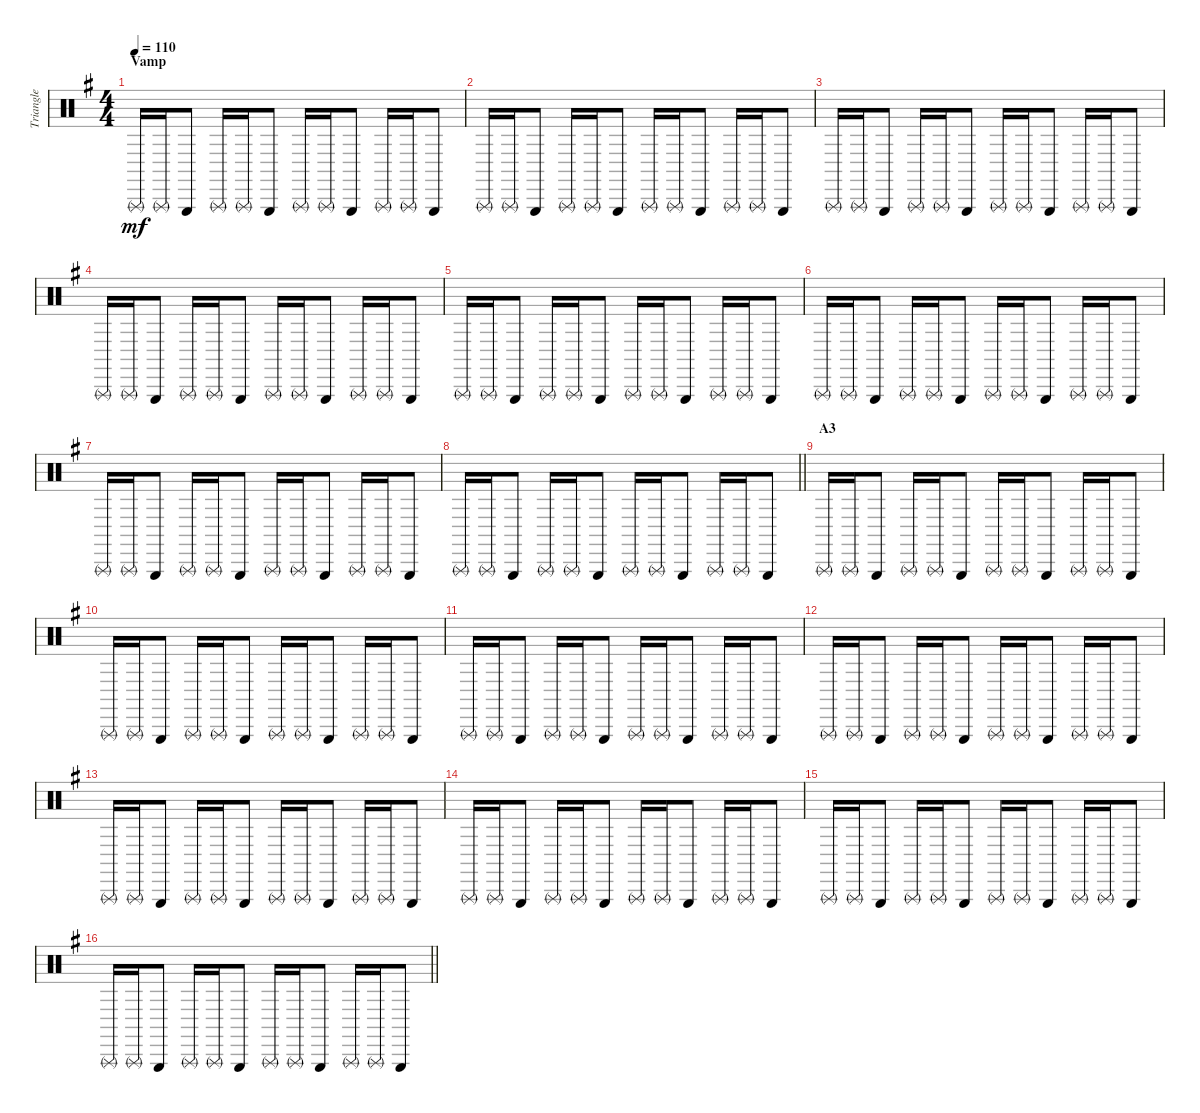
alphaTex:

\track ("Triangle" "Triangle") {instrument percussion}
\staff {score}
\articulation defaults
\ts (4 4)
\section ("" "Vamp")
\tempo 110
\clef neutral
\ks g "Triangle (rnute)".16{dy mf} "Triangle (rnute)".16 "Triangle (hit)".8 "Triangle (rnute)".16 "Triangle (rnute)".16 "Triangle (hit)".8 "Triangle (rnute)".16 "Triangle (rnute)".16 "Triangle (hit)".8 "Triangle (rnute)".16 "Triangle (rnute)".16 "Triangle (hit)".8
|
"Triangle (rnute)".16 "Triangle (rnute)".16 "Triangle (hit)".8 "Triangle (rnute)".16 "Triangle (rnute)".16 "Triangle (hit)".8 "Triangle (rnute)".16 "Triangle (rnute)".16 "Triangle (hit)".8 "Triangle (rnute)".16 "Triangle (rnute)".16 "Triangle (hit)".8 |
"Triangle (rnute)".16 "Triangle (rnute)".16 "Triangle (hit)".8 "Triangle (rnute)".16 "Triangle (rnute)".16 "Triangle (hit)".8 "Triangle (rnute)".16 "Triangle (rnute)".16 "Triangle (hit)".8 "Triangle (rnute)".16 "Triangle (rnute)".16 "Triangle (hit)".8 |
"Triangle (rnute)".16 "Triangle (rnute)".16 "Triangle (hit)".8 "Triangle (rnute)".16 "Triangle (rnute)".16 "Triangle (hit)".8 "Triangle (rnute)".16 "Triangle (rnute)".16 "Triangle (hit)".8 "Triangle (rnute)".16 "Triangle (rnute)".16 "Triangle (hit)".8 |
"Triangle (rnute)".16 "Triangle (rnute)".16 "Triangle (hit)".8 "Triangle (rnute)".16 "Triangle (rnute)".16 "Triangle (hit)".8 "Triangle (rnute)".16 "Triangle (rnute)".16 "Triangle (hit)".8 "Triangle (rnute)".16 "Triangle (rnute)".16 "Triangle (hit)".8 |
"Triangle (rnute)".16 "Triangle (rnute)".16 "Triangle (hit)".8 "Triangle (rnute)".16 "Triangle (rnute)".16 "Triangle (hit)".8 "Triangle (rnute)".16 "Triangle (rnute)".16 "Triangle (hit)".8 "Triangle (rnute)".16 "Triangle (rnute)".16 "Triangle (hit)".8 |
"Triangle (rnute)".16 "Triangle (rnute)".16 "Triangle (hit)".8 "Triangle (rnute)".16 "Triangle (rnute)".16 "Triangle (hit)".8 "Triangle (rnute)".16 "Triangle (rnute)".16 "Triangle (hit)".8 "Triangle (rnute)".16 "Triangle (rnute)".16 "Triangle (hit)".8 |
\barLineRight lightlight "Triangle (rnute)".16 "Triangle (rnute)".16 "Triangle (hit)".8 "Triangle (rnute)".16 "Triangle (rnute)".16 "Triangle (hit)".8 "Triangle (rnute)".16 "Triangle (rnute)".16 "Triangle (hit)".8 "Triangle (rnute)".16 "Triangle (rnute)".16 "Triangle (hit)".8
|
\section ("" "A3")
"Triangle (rnute)".16 "Triangle (rnute)".16 "Triangle (hit)".8 "Triangle (rnute)".16 "Triangle (rnute)".16 "Triangle (hit)".8 "Triangle (rnute)".16 "Triangle (rnute)".16 "Triangle (hit)".8 "Triangle (rnute)".16 "Triangle (rnute)".16 "Triangle (hit)".8 |
"Triangle (rnute)".16 "Triangle (rnute)".16 "Triangle (hit)".8 "Triangle (rnute)".16 "Triangle (rnute)".16 "Triangle (hit)".8 "Triangle (rnute)".16 "Triangle (rnute)".16 "Triangle (hit)".8 "Triangle (rnute)".16 "Triangle (rnute)".16 "Triangle (hit)".8 |
"Triangle (rnute)".16 "Triangle (rnute)".16 "Triangle (hit)".8 "Triangle (rnute)".16 "Triangle (rnute)".16 "Triangle (hit)".8 "Triangle (rnute)".16 "Triangle (rnute)".16 "Triangle (hit)".8 "Triangle (rnute)".16 "Triangle (rnute)".16 "Triangle (hit)".8 |
"Triangle (rnute)".16 "Triangle (rnute)".16 "Triangle (hit)".8 "Triangle (rnute)".16 "Triangle (rnute)".16 "Triangle (hit)".8 "Triangle (rnute)".16 "Triangle (rnute)".16 "Triangle (hit)".8 "Triangle (rnute)".16 "Triangle (rnute)".16 "Triangle (hit)".8 |
"Triangle (rnute)".16 "Triangle (rnute)".16 "Triangle (hit)".8 "Triangle (rnute)".16 "Triangle (rnute)".16 "Triangle (hit)".8 "Triangle (rnute)".16 "Triangle (rnute)".16 "Triangle (hit)".8 "Triangle (rnute)".16 "Triangle (rnute)".16 "Triangle (hit)".8 |
"Triangle (rnute)".16 "Triangle (rnute)".16 "Triangle (hit)".8 "Triangle (rnute)".16 "Triangle (rnute)".16 "Triangle (hit)".8 "Triangle (rnute)".16 "Triangle (rnute)".16 "Triangle (hit)".8 "Triangle (rnute)".16 "Triangle (rnute)".16 "Triangle (hit)".8 |
"Triangle (rnute)".16 "Triangle (rnute)".16 "Triangle (hit)".8 "Triangle (rnute)".16 "Triangle (rnute)".16 "Triangle (hit)".8 "Triangle (rnute)".16 "Triangle (rnute)".16 "Triangle (hit)".8 "Triangle (rnute)".16 "Triangle (rnute)".16 "Triangle (hit)".8 |
\barLineRight lightlight "Triangle (rnute)".16 "Triangle (rnute)".16 "Triangle (hit)".8 "Triangle (rnute)".16 "Triangle (rnute)".16 "Triangle (hit)".8 "Triangle (rnute)".16 "Triangle (rnute)".16 "Triangle (hit)".8 "Triangle (rnute)".16 "Triangle (rnute)".16 "Triangle (hit)".8
